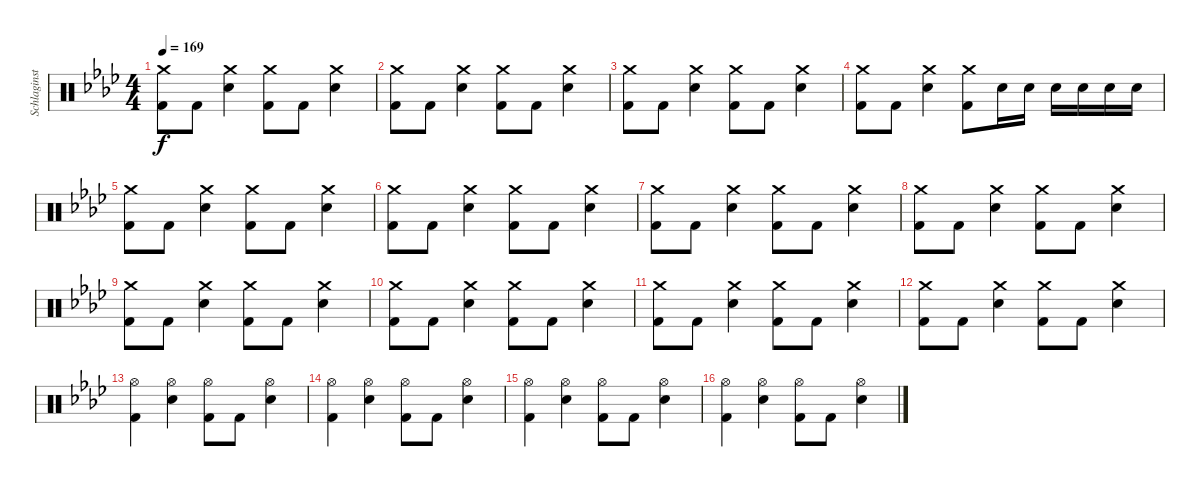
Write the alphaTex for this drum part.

\track ("Schlaginstrumente - Auswahl" "Schlaginst") {instrument percussion}
\staff {score}
\articulation defaults
\ts (4 4)
\tempo 169
\clef neutral
\ks fminor
("Crash medium (hit)" "Kick (hit) 2").8{dy f} "Kick (hit) 2".8 ("Crash medium (hit)" "Electric Snare (hit)").4 ("Crash medium (hit)" "Kick (hit) 2").8 "Kick (hit) 2".8 ("Crash medium (hit)" "Electric Snare (hit)").4 |
("Crash medium (hit)" "Kick (hit) 2").8 "Kick (hit) 2".8 ("Crash medium (hit)" "Electric Snare (hit)").4 ("Crash medium (hit)" "Kick (hit) 2").8 "Kick (hit) 2".8 ("Crash medium (hit)" "Electric Snare (hit)").4 |
("Crash medium (hit)" "Kick (hit) 2").8 "Kick (hit) 2".8 ("Crash medium (hit)" "Electric Snare (hit)").4 ("Crash medium (hit)" "Kick (hit) 2").8 "Kick (hit) 2".8 ("Crash medium (hit)" "Electric Snare (hit)").4 |
("Crash medium (hit)" "Kick (hit) 2").8 "Kick (hit) 2".8 ("Crash medium (hit)" "Electric Snare (hit)").4 ("Crash medium (hit)" "Kick (hit) 2").8 "Electric Snare (hit)".16 "Electric Snare (hit)".16 "Electric Snare (hit)".16 "Electric Snare (hit)".16 "Electric Snare (hit)".16 "Electric Snare (hit)".16 |
("Crash medium (hit)" "Kick (hit) 2").8 "Kick (hit) 2".8 ("Crash medium (hit)" "Electric Snare (hit)").4 ("Crash medium (hit)" "Kick (hit) 2").8 "Kick (hit) 2".8 ("Crash medium (hit)" "Electric Snare (hit)").4 |
("Crash medium (hit)" "Kick (hit) 2").8 "Kick (hit) 2".8 ("Crash medium (hit)" "Electric Snare (hit)").4 ("Crash medium (hit)" "Kick (hit) 2").8 "Kick (hit) 2".8 ("Crash medium (hit)" "Electric Snare (hit)").4 |
("Crash medium (hit)" "Kick (hit) 2").8 "Kick (hit) 2".8 ("Crash medium (hit)" "Electric Snare (hit)").4 ("Crash medium (hit)" "Kick (hit) 2").8 "Kick (hit) 2".8 ("Crash medium (hit)" "Electric Snare (hit)").4 |
("Crash medium (hit)" "Kick (hit) 2").8 "Kick (hit) 2".8 ("Crash medium (hit)" "Electric Snare (hit)").4 ("Crash medium (hit)" "Kick (hit) 2").8 "Kick (hit) 2".8 ("Crash medium (hit)" "Electric Snare (hit)").4 |
("Crash medium (hit)" "Kick (hit) 2").8 "Kick (hit) 2".8 ("Crash medium (hit)" "Electric Snare (hit)").4 ("Crash medium (hit)" "Kick (hit) 2").8 "Kick (hit) 2".8 ("Crash medium (hit)" "Electric Snare (hit)").4 |
("Crash medium (hit)" "Kick (hit) 2").8 "Kick (hit) 2".8 ("Crash medium (hit)" "Electric Snare (hit)").4 ("Crash medium (hit)" "Kick (hit) 2").8 "Kick (hit) 2".8 ("Crash medium (hit)" "Electric Snare (hit)").4 |
("Crash medium (hit)" "Kick (hit) 2").8 "Kick (hit) 2".8 ("Crash medium (hit)" "Electric Snare (hit)").4 ("Crash medium (hit)" "Kick (hit) 2").8 "Kick (hit) 2".8 ("Crash medium (hit)" "Electric Snare (hit)").4 |
("Crash medium (hit)" "Kick (hit) 2").8 "Kick (hit) 2".8 ("Crash medium (hit)" "Electric Snare (hit)").4 ("Crash medium (hit)" "Kick (hit) 2").8 "Kick (hit) 2".8 ("Crash medium (hit)" "Electric Snare (hit)").4 |
("Hi-Hat (open)" "Kick (hit) 2").4 ("Hi-Hat (open)" "Electric Snare (hit)").4 ("Hi-Hat (open)" "Kick (hit) 2").8 "Kick (hit) 2".8 ("Hi-Hat (open)" "Electric Snare (hit)").4 |
("Hi-Hat (open)" "Kick (hit) 2").4 ("Hi-Hat (open)" "Electric Snare (hit)").4 ("Hi-Hat (open)" "Kick (hit) 2").8 "Kick (hit) 2".8 ("Hi-Hat (open)" "Electric Snare (hit)").4 |
("Hi-Hat (open)" "Kick (hit) 2").4 ("Hi-Hat (open)" "Electric Snare (hit)").4 ("Hi-Hat (open)" "Kick (hit) 2").8 "Kick (hit) 2".8 ("Hi-Hat (open)" "Electric Snare (hit)").4 |
("Hi-Hat (open)" "Kick (hit) 2").4 ("Hi-Hat (open)" "Electric Snare (hit)").4 ("Hi-Hat (open)" "Kick (hit) 2").8 "Kick (hit) 2".8 ("Hi-Hat (open)" "Electric Snare (hit)").4
